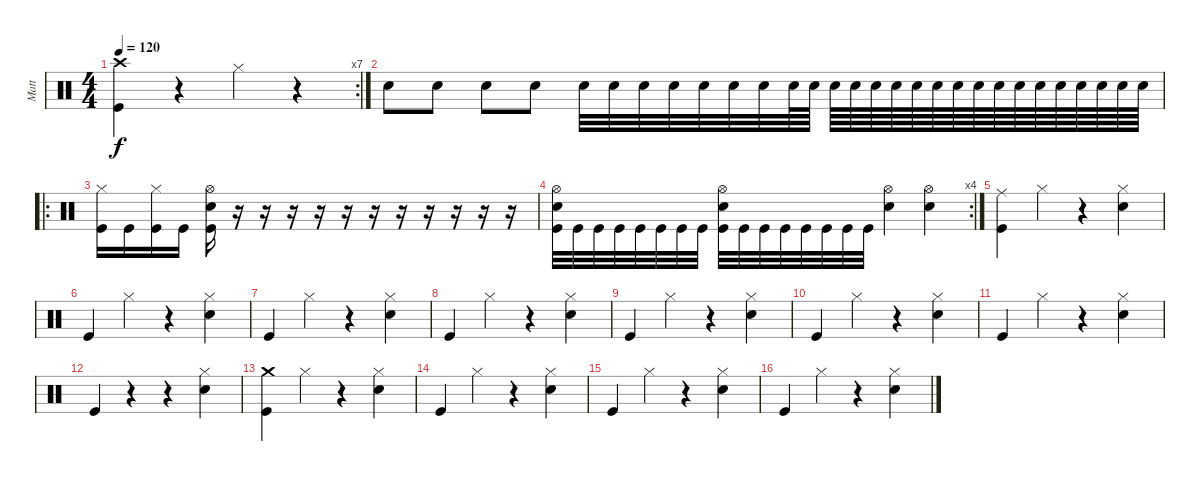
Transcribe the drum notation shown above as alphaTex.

\track ("Matt" "Matt") {instrument percussion}
\staff {score}
\articulation defaults
\rc 7
\ts (4 4)
\tempo 120
\clef neutral
\ks c
("Kick (hit)" "Crash high (hit)").4{dy f} r.4 "Hi-Hat (closed)".4 r.4 |
"Electric Snare (hit)".8 "Electric Snare (hit)".8 "Electric Snare (hit)".8 "Electric Snare (hit)".8 "Electric Snare (hit)".32 "Electric Snare (hit)".32 "Electric Snare (hit)".32 "Electric Snare (hit)".32 "Electric Snare (hit)".32 "Electric Snare (hit)".32 "Electric Snare (hit)".32 "Electric Snare (hit)".64 "Electric Snare (hit)".64 "Electric Snare (hit)".64 "Electric Snare (hit)".64 "Electric Snare (hit)".64 "Electric Snare (hit)".64 "Electric Snare (hit)".64 "Electric Snare (hit)".64 "Electric Snare (hit)".64 "Electric Snare (hit)".64 "Electric Snare (hit)".64 "Electric Snare (hit)".64 "Electric Snare (hit)".64 "Electric Snare (hit)".64 "Electric Snare (hit)".64 "Electric Snare (hit)".64 "Electric Snare (hit)".64 "Electric Snare (hit)".64 |
\ro
("Hi-Hat (closed)" "Kick (hit)").16 "Kick (hit)".16 ("Hi-Hat (closed)" "Kick (hit)").16 "Kick (hit)".16 ("Electric Snare (hit)" "Hi-Hat (open)" "Kick (hit)").16 r.16 r.16 r.16 r.16 r.16 r.16 r.16 r.16 r.16 r.16 r.16 |
\rc 4
("Hi-Hat (open)" "Electric Snare (hit)" "Kick (hit)").32 "Kick (hit)".32 "Kick (hit)".32 "Kick (hit)".32 "Kick (hit)".32 "Kick (hit)".32 "Kick (hit)".32 "Kick (hit)".32 ("Hi-Hat (open)" "Electric Snare (hit)" "Kick (hit)").32 "Kick (hit)".32 "Kick (hit)".32 "Kick (hit)".32 "Kick (hit)".32 "Kick (hit)".32 "Kick (hit)".32 "Kick (hit)".32 ("Hi-Hat (open)" "Electric Snare (hit)").4 ("Hi-Hat (open)" "Electric Snare (hit)").4 |
("Ride (middle)" "Kick (hit)").4 "Hi-Hat (closed)".4 r.4 ("Hi-Hat (closed)" "Electric Snare (hit)").4 |
"Kick (hit)".4 "Hi-Hat (closed)".4 r.4 ("Hi-Hat (closed)" "Electric Snare (hit)").4 |
"Kick (hit)".4 "Hi-Hat (closed)".4 r.4 ("Hi-Hat (closed)" "Electric Snare (hit)").4 |
"Kick (hit)".4 "Hi-Hat (closed)".4 r.4 ("Hi-Hat (closed)" "Electric Snare (hit)").4 |
"Kick (hit)".4 "Hi-Hat (closed)".4 r.4 ("Hi-Hat (closed)" "Electric Snare (hit)").4 |
"Kick (hit)".4 "Hi-Hat (closed)".4 r.4 ("Hi-Hat (closed)" "Electric Snare (hit)").4 |
"Kick (hit)".4 "Hi-Hat (closed)".4 r.4 ("Hi-Hat (closed)" "Electric Snare (hit)").4 |
"Kick (hit)".4 r.4 r.4 ("Hi-Hat (closed)" "Electric Snare (hit)").4 |
("Crash medium (hit)" "Kick (hit)").4 "Hi-Hat (closed)".4 r.4 ("Hi-Hat (closed)" "Electric Snare (hit)").4 |
"Kick (hit)".4 "Hi-Hat (closed)".4 r.4 ("Hi-Hat (closed)" "Electric Snare (hit)").4 |
"Kick (hit)".4 "Hi-Hat (closed)".4 r.4 ("Hi-Hat (closed)" "Electric Snare (hit)").4 |
"Kick (hit)".4 "Hi-Hat (closed)".4 r.4 ("Hi-Hat (closed)" "Electric Snare (hit)").4
